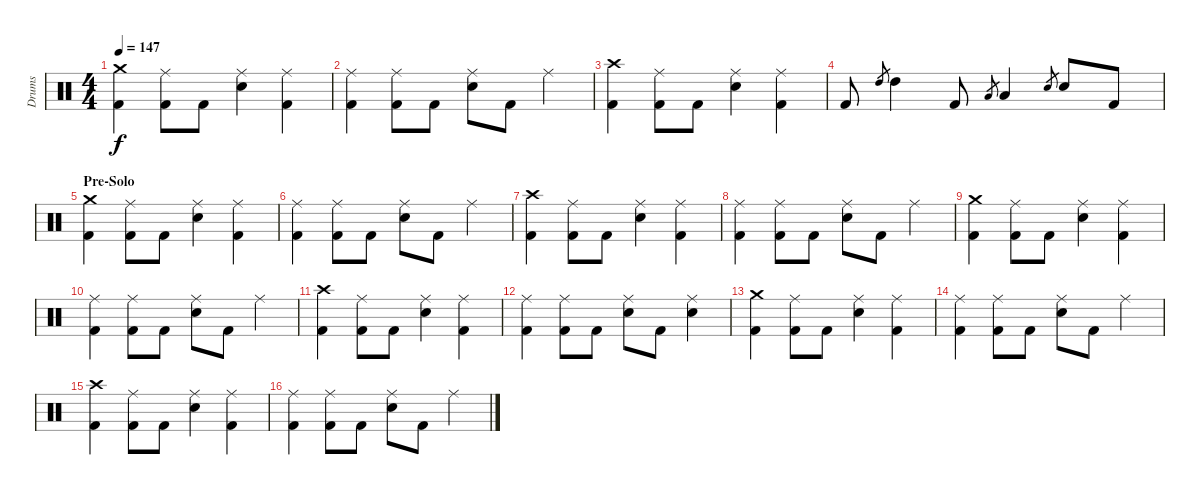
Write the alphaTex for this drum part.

\track ("Drums" "Drums") {instrument percussion}
\staff {score}
\articulation defaults
\ts (4 4)
\tempo 147
\clef neutral
\ks c
("Crash medium (hit)" "Kick (hit) 2").4{dy f} ("Ride (middle)" "Kick (hit) 2").8 "Kick (hit) 2".8 ("Ride (middle)" "Snare (hit) 2").4 ("Ride (middle)" "Kick (hit) 2").4 |
("Ride (middle)" "Kick (hit) 2").4 ("Ride (middle)" "Kick (hit) 2").8 "Kick (hit) 2".8 ("Ride (middle)" "Snare (hit) 2").8 "Kick (hit) 2".8 "Ride (middle)".4 |
("Crash high (hit)" "Kick (hit) 2").4 ("Ride (middle)" "Kick (hit) 2").8 "Kick (hit) 2".8 ("Ride (middle)" "Snare (hit) 2").4 ("Ride (middle)" "Kick (hit) 2").4 |
"Kick (hit) 2".8 "High Tom (hit)".8{gr} "High Tom (hit)".4 "Kick (hit) 2".8 "Low Tom (hit)".8{gr} "Low Tom (hit)".4 "Snare (hit) 2".8{gr} "Snare (hit) 2".8 "Kick (hit) 2".8 |
\section ("" "Pre-Solo")
("Crash medium (hit)" "Kick (hit) 2").4 ("Ride (middle)" "Kick (hit) 2").8 "Kick (hit) 2".8 ("Ride (middle)" "Snare (hit) 2").4 ("Ride (middle)" "Kick (hit) 2").4 |
("Ride (middle)" "Kick (hit) 2").4 ("Ride (middle)" "Kick (hit) 2").8 "Kick (hit) 2".8 ("Ride (middle)" "Snare (hit) 2").8 "Kick (hit) 2".8 "Ride (middle)".4 |
("Crash high (hit)" "Kick (hit) 2").4 ("Ride (middle)" "Kick (hit) 2").8 "Kick (hit) 2".8 ("Ride (middle)" "Snare (hit) 2").4 ("Ride (middle)" "Kick (hit) 2").4 |
("Ride (middle)" "Kick (hit) 2").4 ("Ride (middle)" "Kick (hit) 2").8 "Kick (hit) 2".8 ("Ride (middle)" "Snare (hit) 2").8 "Kick (hit) 2".8 "Ride (middle)".4 |
("Crash medium (hit)" "Kick (hit) 2").4 ("Ride (middle)" "Kick (hit) 2").8 "Kick (hit) 2".8 ("Ride (middle)" "Snare (hit) 2").4 ("Ride (middle)" "Kick (hit) 2").4 |
("Ride (middle)" "Kick (hit) 2").4 ("Ride (middle)" "Kick (hit) 2").8 "Kick (hit) 2".8 ("Ride (middle)" "Snare (hit) 2").8 "Kick (hit) 2".8 "Ride (middle)".4 |
("Crash high (hit)" "Kick (hit) 2").4 ("Ride (middle)" "Kick (hit) 2").8 "Kick (hit) 2".8 ("Ride (middle)" "Snare (hit) 2").4 ("Ride (middle)" "Kick (hit) 2").4 |
("Ride (middle)" "Kick (hit) 2").4 ("Ride (middle)" "Kick (hit) 2").8 "Kick (hit) 2".8 ("Ride (middle)" "Snare (hit) 2").8 "Kick (hit) 2".8 ("Ride (middle)" "Snare (hit) 2").4 |
("Crash medium (hit)" "Kick (hit) 2").4 ("Ride (middle)" "Kick (hit) 2").8 "Kick (hit) 2".8 ("Ride (middle)" "Snare (hit) 2").4 ("Ride (middle)" "Kick (hit) 2").4 |
("Ride (middle)" "Kick (hit) 2").4 ("Ride (middle)" "Kick (hit) 2").8 "Kick (hit) 2".8 ("Ride (middle)" "Snare (hit) 2").8 "Kick (hit) 2".8 "Ride (middle)".4 |
("Crash high (hit)" "Kick (hit) 2").4 ("Ride (middle)" "Kick (hit) 2").8 "Kick (hit) 2".8 ("Ride (middle)" "Snare (hit) 2").4 ("Ride (middle)" "Kick (hit) 2").4 |
("Ride (middle)" "Kick (hit) 2").4 ("Ride (middle)" "Kick (hit) 2").8 "Kick (hit) 2".8 ("Ride (middle)" "Snare (hit) 2").8 "Kick (hit) 2".8 "Ride (middle)".4
